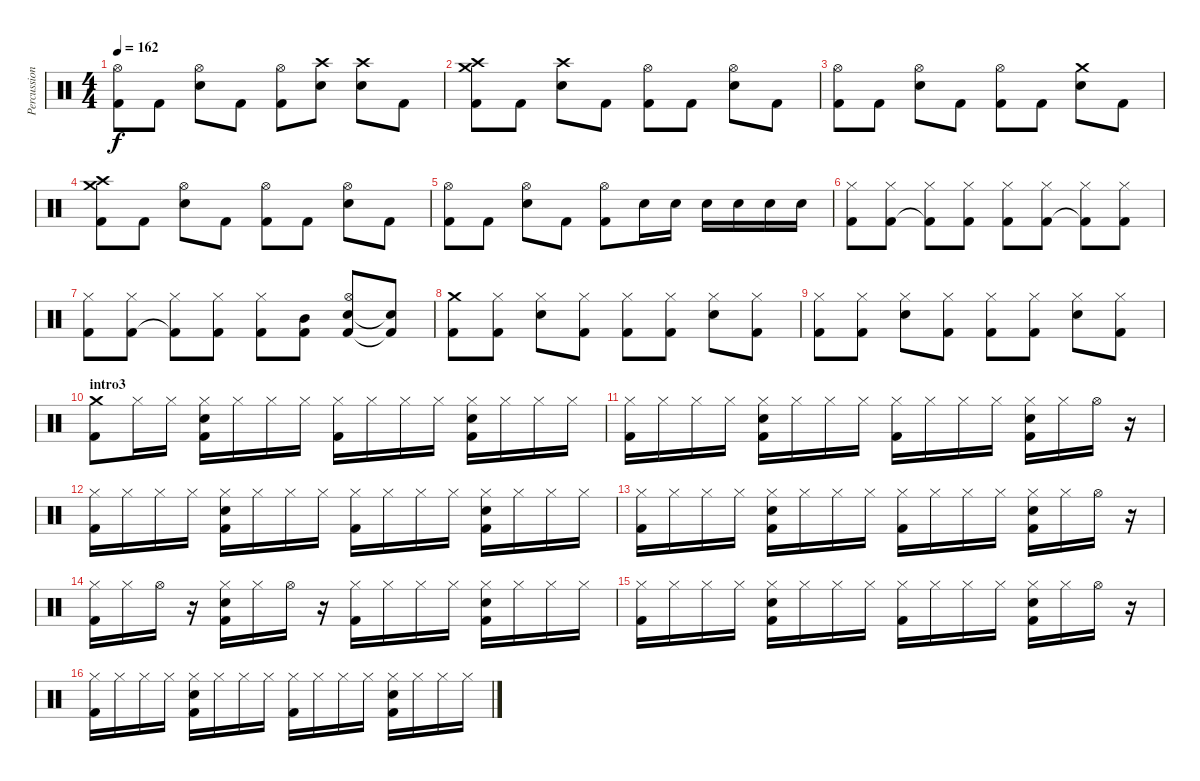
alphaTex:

\track ("Percussion" "Percussion") {instrument percussion}
\staff {score}
\articulation defaults
\ts (4 4)
\tempo 162
\clef neutral
\ks c
("Kick (hit) 2" "Hi-Hat (open)").8{dy f} "Kick (hit) 2".8 ("Snare (hit) 2" "Hi-Hat (open)").8 "Kick (hit) 2".8 ("Kick (hit) 2" "Hi-Hat (open)").8 ("Snare (hit) 2" "Crash high (hit)").8 ("Snare (hit) 2" "Crash high (hit)").8 "Kick (hit) 2".8 |
("Kick (hit) 2" "Crash high (hit)" "Crash medium (hit)").8 "Kick (hit) 2".8 ("Snare (hit) 2" "Crash high (hit)").8 "Kick (hit) 2".8 ("Kick (hit) 2" "Hi-Hat (open)").8 "Kick (hit) 2".8 ("Snare (hit) 2" "Hi-Hat (open)").8 "Kick (hit) 2".8 |
("Kick (hit) 2" "Hi-Hat (open)").8 "Kick (hit) 2".8 ("Snare (hit) 2" "Hi-Hat (open)").8 "Kick (hit) 2".8 ("Kick (hit) 2" "Hi-Hat (open)").8 "Kick (hit) 2".8 ("Snare (hit) 2" "Crash medium (hit)").8 "Kick (hit) 2".8 |
("Kick (hit) 2" "Crash medium (hit)" "Crash high (hit)").8 "Kick (hit) 2".8 ("Snare (hit) 2" "Hi-Hat (open)").8 "Kick (hit) 2".8 ("Kick (hit) 2" "Hi-Hat (open)").8 "Kick (hit) 2".8 ("Snare (hit) 2" "Hi-Hat (open)").8 "Kick (hit) 2".8 |
("Kick (hit) 2" "Hi-Hat (open)").8 "Kick (hit) 2".8 ("Snare (hit) 2" "Hi-Hat (open)").8 "Kick (hit) 2".8 ("Kick (hit) 2" "Hi-Hat (open)").8 "Snare (hit) 2".16 "Snare (hit) 2".16 "Snare (hit) 2".16 "Snare (hit) 2".16 "Snare (hit) 2".16 "Snare (hit) 2".16 |
("Kick (hit) 2" "Hi-Hat (closed)").8 ("Kick (hit) 2" "Hi-Hat (closed)").8 ("Kick (hit) 2"{t} "Hi-Hat (closed)").8 ("Kick (hit) 2" "Hi-Hat (closed)").8 ("Kick (hit) 2" "Hi-Hat (closed)").8 ("Kick (hit) 2" "Hi-Hat (closed)").8 ("Kick (hit) 2"{t} "Hi-Hat (closed)").8 ("Kick (hit) 2" "Hi-Hat (closed)").8 |
("Kick (hit) 2" "Hi-Hat (closed)").8 ("Kick (hit) 2" "Hi-Hat (closed)").8 ("Kick (hit) 2"{t} "Hi-Hat (closed)").8 ("Kick (hit) 2" "Hi-Hat (closed)").8 ("Kick (hit) 2" "Hi-Hat (closed)").8 ("Kick (hit) 2" "Mid Tom (hit)").8 ("Kick (hit) 2" "Snare (hit) 2" "Hi-Hat (open)").8 ("Kick (hit) 2"{t} "Snare (hit)"{t}).8 |
("Kick (hit) 2" "Crash medium (hit)").8 ("Kick (hit) 2" "Hi-Hat (closed)").8 ("Snare (hit) 2" "Hi-Hat (closed)").8 ("Kick (hit) 2" "Hi-Hat (closed)").8 ("Kick (hit) 2" "Hi-Hat (closed)").8 ("Kick (hit) 2" "Hi-Hat (closed)").8 ("Snare (hit) 2" "Hi-Hat (closed)").8 ("Kick (hit) 2" "Hi-Hat (closed)").8 |
("Kick (hit) 2" "Hi-Hat (closed)").8 ("Kick (hit) 2" "Hi-Hat (closed)").8 ("Snare (hit) 2" "Hi-Hat (closed)").8 ("Kick (hit) 2" "Hi-Hat (closed)").8 ("Kick (hit) 2" "Hi-Hat (closed)").8 ("Kick (hit) 2" "Hi-Hat (closed)").8 ("Snare (hit) 2" "Hi-Hat (closed)").8 ("Kick (hit) 2" "Hi-Hat (closed)").8 |
\section ("" "intro3")
("Kick (hit) 2" "Crash medium (hit)").8 "Hi-Hat (closed)".16 "Hi-Hat (closed)".16 ("Kick (hit) 2" "Snare (hit) 2" "Hi-Hat (closed)").16 "Hi-Hat (closed)".16 "Hi-Hat (closed)".16 "Hi-Hat (closed)".16 ("Kick (hit) 2" "Hi-Hat (closed)").16 "Hi-Hat (closed)".16 "Hi-Hat (closed)".16 "Hi-Hat (closed)".16 ("Kick (hit) 2" "Snare (hit) 2" "Hi-Hat (closed)").16 "Hi-Hat (closed)".16 "Hi-Hat (closed)".16 "Hi-Hat (closed)".16 |
("Kick (hit) 2" "Hi-Hat (closed)").16 "Hi-Hat (closed)".16 "Hi-Hat (closed)".16 "Hi-Hat (closed)".16 ("Kick (hit) 2" "Snare (hit) 2" "Hi-Hat (closed)").16 "Hi-Hat (closed)".16 "Hi-Hat (closed)".16 "Hi-Hat (closed)".16 ("Kick (hit) 2" "Hi-Hat (closed)").16 "Hi-Hat (closed)".16 "Hi-Hat (closed)".16 "Hi-Hat (closed)".16 ("Kick (hit) 2" "Snare (hit) 2" "Hi-Hat (closed)").16 "Hi-Hat (closed)".16 "Hi-Hat (open)".16 r.16 |
("Kick (hit) 2" "Hi-Hat (closed)").16 "Hi-Hat (closed)".16 "Hi-Hat (closed)".16 "Hi-Hat (closed)".16 ("Kick (hit) 2" "Snare (hit) 2" "Hi-Hat (closed)").16 "Hi-Hat (closed)".16 "Hi-Hat (closed)".16 "Hi-Hat (closed)".16 ("Kick (hit) 2" "Hi-Hat (closed)").16 "Hi-Hat (closed)".16 "Hi-Hat (closed)".16 "Hi-Hat (closed)".16 ("Kick (hit) 2" "Snare (hit) 2" "Hi-Hat (closed)").16 "Hi-Hat (closed)".16 "Hi-Hat (closed)".16 "Hi-Hat (closed)".16 |
("Kick (hit) 2" "Hi-Hat (closed)").16 "Hi-Hat (closed)".16 "Hi-Hat (closed)".16 "Hi-Hat (closed)".16 ("Kick (hit) 2" "Snare (hit) 2" "Hi-Hat (closed)").16 "Hi-Hat (closed)".16 "Hi-Hat (closed)".16 "Hi-Hat (closed)".16 ("Kick (hit) 2" "Hi-Hat (closed)").16 "Hi-Hat (closed)".16 "Hi-Hat (closed)".16 "Hi-Hat (closed)".16 ("Kick (hit) 2" "Snare (hit) 2" "Hi-Hat (closed)").16 "Hi-Hat (closed)".16 "Hi-Hat (open)".16 r.16 |
("Kick (hit) 2" "Hi-Hat (closed)").16 "Hi-Hat (closed)".16 "Hi-Hat (open)".16 r.16 ("Kick (hit) 2" "Snare (hit) 2" "Hi-Hat (closed)").16 "Hi-Hat (closed)".16 "Hi-Hat (open)".16 r.16 ("Kick (hit) 2" "Hi-Hat (closed)").16 "Hi-Hat (closed)".16 "Hi-Hat (closed)".16 "Hi-Hat (closed)".16 ("Kick (hit) 2" "Snare (hit) 2" "Hi-Hat (closed)").16 "Hi-Hat (closed)".16 "Hi-Hat (closed)".16 "Hi-Hat (closed)".16 |
("Kick (hit) 2" "Hi-Hat (closed)").16 "Hi-Hat (closed)".16 "Hi-Hat (closed)".16 "Hi-Hat (closed)".16 ("Kick (hit) 2" "Snare (hit) 2" "Hi-Hat (closed)").16 "Hi-Hat (closed)".16 "Hi-Hat (closed)".16 "Hi-Hat (closed)".16 ("Kick (hit) 2" "Hi-Hat (closed)").16 "Hi-Hat (closed)".16 "Hi-Hat (closed)".16 "Hi-Hat (closed)".16 ("Kick (hit) 2" "Snare (hit) 2" "Hi-Hat (closed)").16 "Hi-Hat (closed)".16 "Hi-Hat (open)".16 r.16 |
("Kick (hit) 2" "Hi-Hat (closed)").16 "Hi-Hat (closed)".16 "Hi-Hat (closed)".16 "Hi-Hat (closed)".16 ("Kick (hit) 2" "Snare (hit) 2" "Hi-Hat (closed)").16 "Hi-Hat (closed)".16 "Hi-Hat (closed)".16 "Hi-Hat (closed)".16 ("Kick (hit) 2" "Hi-Hat (closed)").16 "Hi-Hat (closed)".16 "Hi-Hat (closed)".16 "Hi-Hat (closed)".16 ("Kick (hit) 2" "Snare (hit) 2" "Hi-Hat (closed)").16 "Hi-Hat (closed)".16 "Hi-Hat (closed)".16 "Hi-Hat (closed)".16
